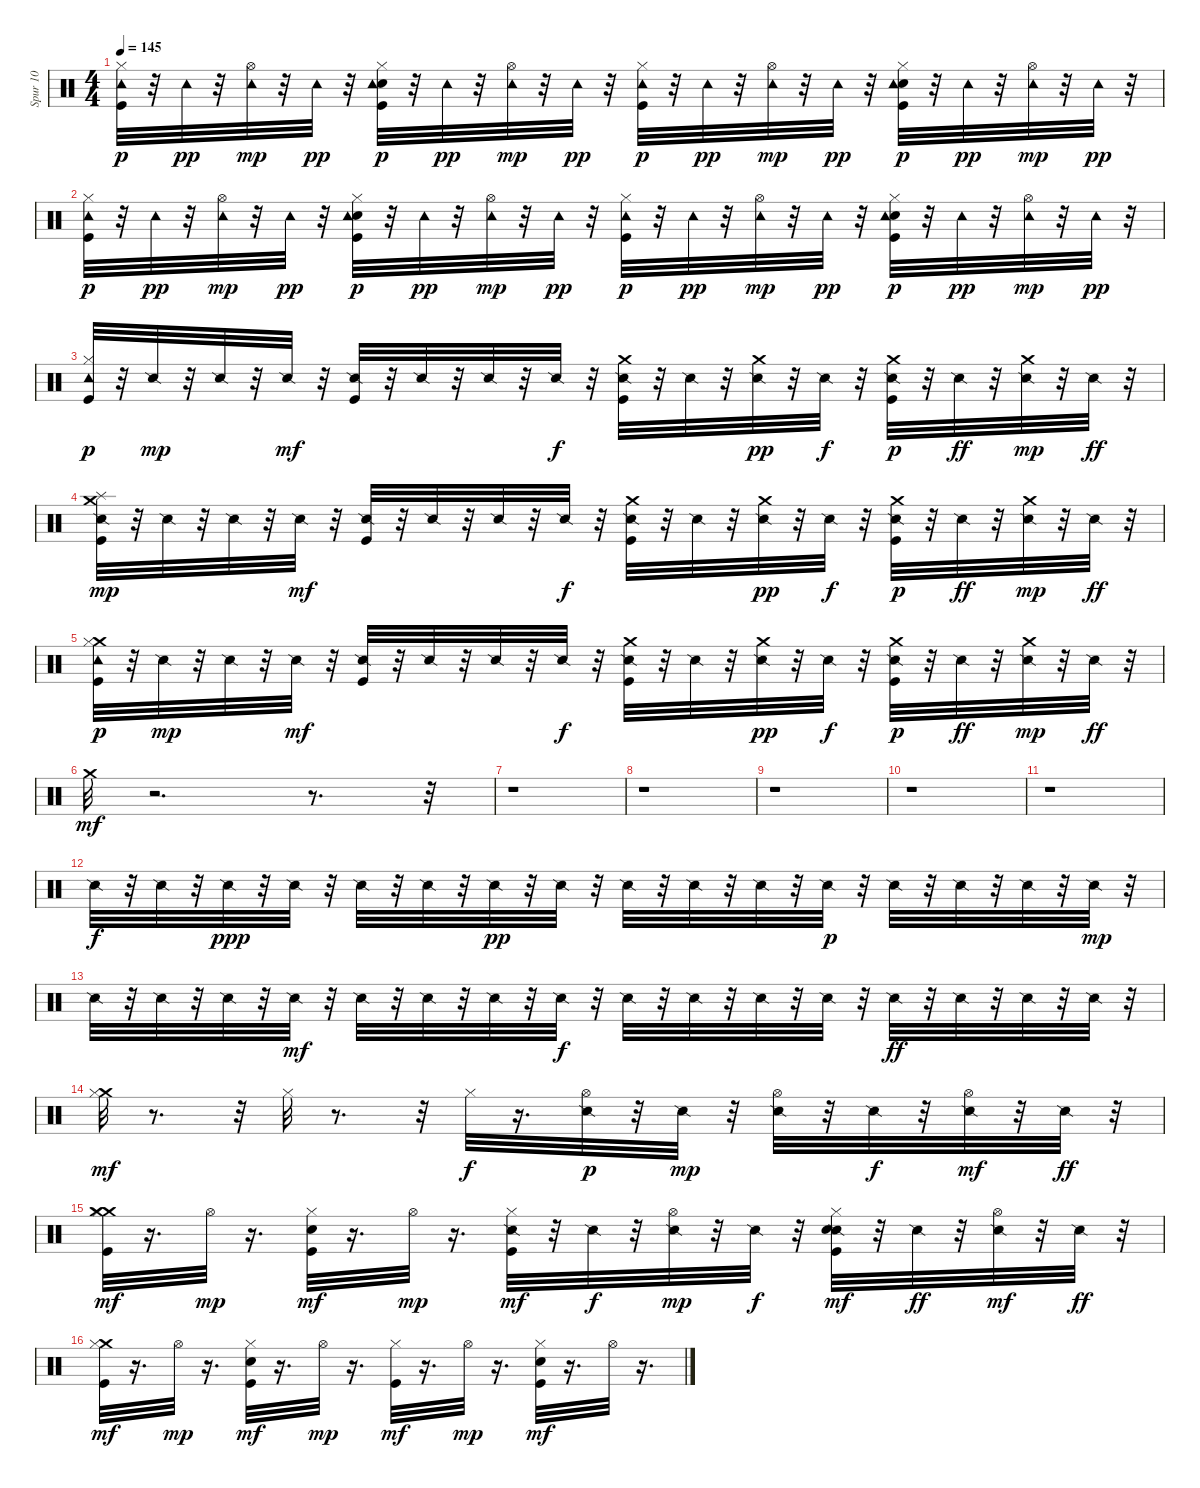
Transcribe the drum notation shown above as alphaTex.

\track ("Spur 10" "Spur 10") {instrument percussion}
\staff {score}
\articulation defaults
\ts (4 4)
\tempo 145
\clef neutral
\ks c
("Kick (hit)" "Hi-Hat (closed)" "Tambourine (hit)").32{dy p} r.32 "Tambourine (hit)".32{dy pp} r.32 ("Hi-Hat (open)" "Tambourine (hit)").32{dy mp} r.32 "Tambourine (hit)".32{dy pp} r.32 ("Kick (hit)" "Snare (hit) 2" "Hi-Hat (closed)" "Tambourine (hit)").32{dy p} r.32 "Tambourine (hit)".32{dy pp} r.32 ("Hi-Hat (open)" "Tambourine (hit)").32{dy mp} r.32 "Tambourine (hit)".32{dy pp} r.32 ("Kick (hit)" "Hi-Hat (closed)" "Tambourine (hit)").32{dy p} r.32 "Tambourine (hit)".32{dy pp} r.32 ("Hi-Hat (open)" "Tambourine (hit)").32{dy mp} r.32 "Tambourine (hit)".32{dy pp} r.32 ("Kick (hit)" "Snare (hit) 2" "Hi-Hat (closed)" "Tambourine (hit)").32{dy p} r.32 "Tambourine (hit)".32{dy pp} r.32 ("Hi-Hat (open)" "Tambourine (hit)").32{dy mp} r.32 "Tambourine (hit)".32{dy pp} r.32 |
("Kick (hit)" "Hi-Hat (closed)" "Tambourine (hit)").32{dy p} r.32 "Tambourine (hit)".32{dy pp} r.32 ("Hi-Hat (open)" "Tambourine (hit)").32{dy mp} r.32 "Tambourine (hit)".32{dy pp} r.32 ("Kick (hit)" "Snare (hit) 2" "Hi-Hat (closed)" "Tambourine (hit)").32{dy p} r.32 "Tambourine (hit)".32{dy pp} r.32 ("Hi-Hat (open)" "Tambourine (hit)").32{dy mp} r.32 "Tambourine (hit)".32{dy pp} r.32 ("Kick (hit)" "Hi-Hat (closed)" "Tambourine (hit)").32{dy p} r.32 "Tambourine (hit)".32{dy pp} r.32 ("Hi-Hat (open)" "Tambourine (hit)").32{dy mp} r.32 "Tambourine (hit)".32{dy pp} r.32 ("Kick (hit)" "Snare (hit) 2" "Hi-Hat (closed)" "Tambourine (hit)").32{dy p} r.32 "Tambourine (hit)".32{dy pp} r.32 ("Hi-Hat (open)" "Tambourine (hit)").32{dy mp} r.32 "Tambourine (hit)".32{dy pp} r.32 |
("Kick (hit)" "Hi-Hat (closed)" "Tambourine (hit)").32{dy p} r.32 "Snare (side stick) 2".32{dy mp} r.32 "Snare (side stick) 2".32 r.32 "Snare (side stick) 2".32{dy mf} r.32 ("Snare (side stick) 2" "Kick (hit)").32 r.32 "Snare (side stick) 2".32 r.32 "Snare (side stick) 2".32 r.32 "Snare (side stick) 2".32{dy f} r.32 ("Snare (side stick) 2" "Kick (hit)" "Crash medium (hit)").32{balance 10} r.32 "Snare (side stick) 2".32 r.32 ("Snare (side stick) 2" "Crash medium (hit)").32{dy pp balance 14} r.32 "Snare (side stick) 2".32{dy f} r.32 ("Snare (side stick) 2" "Kick (hit)" "Crash medium (hit)").32{dy p balance 7} r.32 "Snare (side stick) 2".32{dy ff} r.32 ("Snare (side stick) 2" "Crash medium (hit)").32{dy mp balance 0} r.32 "Snare (side stick) 2".32{dy ff} r.32 |
("Crash medium (hit)" "Snare (side stick) 2" "Kick (hit)" "Splash (hit)").32{dy mp balance 8} r.32 "Snare (side stick) 2".32 r.32 "Snare (side stick) 2".32 r.32 "Snare (side stick) 2".32{dy mf} r.32 ("Snare (side stick) 2" "Kick (hit)").32 r.32 "Snare (side stick) 2".32 r.32 "Snare (side stick) 2".32 r.32 "Snare (side stick) 2".32{dy f} r.32 ("Snare (side stick) 2" "Kick (hit)" "Crash medium (hit)").32{balance 10} r.32 "Snare (side stick) 2".32 r.32 ("Snare (side stick) 2" "Crash medium (hit)").32{dy pp balance 14} r.32 "Snare (side stick) 2".32{dy f} r.32 ("Snare (side stick) 2" "Kick (hit)" "Crash medium (hit)").32{dy p balance 7} r.32 "Snare (side stick) 2".32{dy ff} r.32 ("Snare (side stick) 2" "Crash medium (hit)").32{dy mp balance 0} r.32 "Snare (side stick) 2".32{dy ff} r.32 |
("Crash medium (hit)" "Kick (hit)" "Hi-Hat (closed)" "Tambourine (hit)").32{dy p balance 8} r.32 "Snare (side stick) 2".32{dy mp} r.32 "Snare (side stick) 2".32 r.32 "Snare (side stick) 2".32{dy mf} r.32 ("Snare (side stick) 2" "Kick (hit)").32 r.32 "Snare (side stick) 2".32 r.32 "Snare (side stick) 2".32 r.32 "Snare (side stick) 2".32{dy f} r.32 ("Snare (side stick) 2" "Kick (hit)" "Crash medium (hit)").32{balance 10} r.32 "Snare (side stick) 2".32 r.32 ("Snare (side stick) 2" "Crash medium (hit)").32{dy pp balance 14} r.32 "Snare (side stick) 2".32{dy f} r.32 ("Snare (side stick) 2" "Kick (hit)" "Crash medium (hit)").32{dy p balance 7} r.32 "Snare (side stick) 2".32{dy ff} r.32 ("Snare (side stick) 2" "Crash medium (hit)").32{dy mp balance 0} r.32 "Snare (side stick) 2".32{dy ff} r.32 |
"Crash medium (hit)".32{dy mf balance 8} r.2{d} r.8{d} r.32 |
r.1 |
r.1 |
r.1 |
r.1 |
r.1 |
"Snare (side stick) 2".32{dy f} r.32 "Snare (side stick) 2".32 r.32 "Snare (side stick) 2".32{dy ppp} r.32 "Snare (side stick) 2".32 r.32 "Snare (side stick) 2".32{balance 9} r.32 "Snare (side stick) 2".32 r.32 "Snare (side stick) 2".32{dy pp balance 11} r.32 "Snare (side stick) 2".32 r.32 "Snare (side stick) 2".32{balance 15} r.32 "Snare (side stick) 2".32 r.32 "Snare (side stick) 2".32{balance 11} r.32 "Snare (side stick) 2".32{dy p} r.32 "Snare (side stick) 2".32{balance 8} r.32 "Snare (side stick) 2".32 r.32 "Snare (side stick) 2".32{balance 4} r.32 "Snare (side stick) 2".32{dy mp} r.32 |
"Snare (side stick) 2".32{balance 0} r.32 "Snare (side stick) 2".32 r.32 "Snare (side stick) 2".32{balance 4} r.32 "Snare (side stick) 2".32{dy mf} r.32 "Snare (side stick) 2".32{balance 8} r.32 "Snare (side stick) 2".32 r.32 "Snare (side stick) 2".32{balance 11} r.32 "Snare (side stick) 2".32{dy f} r.32 "Snare (side stick) 2".32{balance 15} r.32 "Snare (side stick) 2".32 r.32 "Snare (side stick) 2".32{balance 11} r.32 "Snare (side stick) 2".32 r.32 "Snare (side stick) 2".32{dy ff balance 8} r.32 "Snare (side stick) 2".32 r.32 "Snare (side stick) 2".32{balance 4} r.32 "Snare (side stick) 2".32 r.32 |
("Crash medium (hit)" "Hi-Hat (closed)").32{dy mf balance 8} r.8{d} r.32 "Hi-Hat (closed)".32 r.8{d} r.32 "Hi-Hat (closed)".32{dy f} r.16{d} ("Snare (side stick) 2" "Hi-Hat (open)").32{dy p balance 10} r.32 "Snare (side stick) 2".32{dy mp} r.32 ("Snare (side stick) 2" "Hi-Hat (open)").32{balance 6} r.32 "Snare (side stick) 2".32{dy f} r.32 ("Snare (side stick) 2" "Hi-Hat (open)").32{dy mf balance 2} r.32 "Snare (side stick) 2".32{dy ff} r.32 |
("Crash medium (hit)" "Kick (hit)" "Hi-Hat (closed)" "Crash medium (hit)").32{dy mf balance 8} r.16{d} "Hi-Hat (open)".32{dy mp} r.16{d} ("Kick (hit)" "Snare (hit) 2" "Hi-Hat (closed)").32{dy mf} r.16{d} "Hi-Hat (open)".32{dy mp} r.16{d} ("Snare (side stick) 2" "Kick (hit)" "Hi-Hat (closed)").32{dy mf} r.32 "Snare (side stick) 2".32{dy f} r.32 ("Snare (side stick) 2" "Hi-Hat (open)").32{dy mp balance 11} r.32 "Snare (side stick) 2".32{dy f} r.32 ("Snare (side stick) 2" "Kick (hit)" "Snare (hit) 2" "Hi-Hat (closed)").32{dy mf balance 8} r.32 "Snare (side stick) 2".32{dy ff} r.32 ("Snare (side stick) 2" "Hi-Hat (open)").32{dy mf balance 4} r.32 "Snare (side stick) 2".32{dy ff} r.32 |
("Crash medium (hit)" "Kick (hit)" "Hi-Hat (closed)").32{dy mf balance 8} r.16{d} "Hi-Hat (open)".32{dy mp} r.16{d} ("Kick (hit)" "Snare (hit) 2" "Hi-Hat (closed)").32{dy mf} r.16{d} "Hi-Hat (open)".32{dy mp} r.16{d} ("Kick (hit)" "Hi-Hat (closed)").32{dy mf} r.16{d} "Hi-Hat (open)".32{dy mp} r.16{d} ("Kick (hit)" "Snare (hit) 2" "Hi-Hat (closed)").32{dy mf} r.16{d} "Hi-Hat (open)".32 r.16{d}
